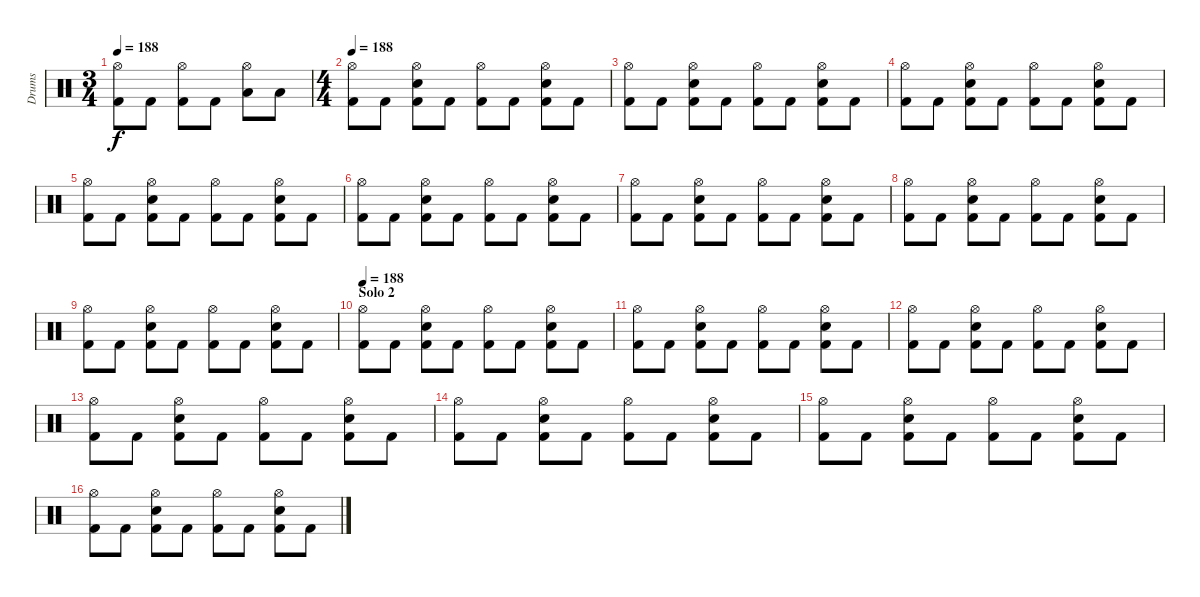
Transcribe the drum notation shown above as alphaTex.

\track ("Drums" "Drums") {instrument percussion}
\staff {score}
\articulation defaults
\ts (3 4)
\tempo 188
\clef neutral
\ks c
("Hi-Hat (open)" "Kick (hit) 2").8{dy f} "Kick (hit) 2".8 ("Hi-Hat (open)" "Kick (hit) 2").8 "Kick (hit) 2".8 ("Hi-Hat (open)" "Low Floor Tom (hit)").8 "Low Floor Tom (hit)".8 |
\ts (4 4)
\tempo 188
("Hi-Hat (open)" "Kick (hit) 2").8 "Kick (hit) 2".8 ("Electric Snare (hit)" "Hi-Hat (open)" "Kick (hit) 2").8 "Kick (hit) 2".8 ("Hi-Hat (open)" "Kick (hit) 2").8 "Kick (hit) 2".8 ("Electric Snare (hit)" "Hi-Hat (open)" "Kick (hit) 2").8 "Kick (hit) 2".8 |
("Hi-Hat (open)" "Kick (hit) 2").8 "Kick (hit) 2".8 ("Electric Snare (hit)" "Hi-Hat (open)" "Kick (hit) 2").8 "Kick (hit) 2".8 ("Hi-Hat (open)" "Kick (hit) 2").8 "Kick (hit) 2".8 ("Electric Snare (hit)" "Hi-Hat (open)" "Kick (hit) 2").8 "Kick (hit) 2".8 |
("Hi-Hat (open)" "Kick (hit) 2").8 "Kick (hit) 2".8 ("Electric Snare (hit)" "Hi-Hat (open)" "Kick (hit) 2").8 "Kick (hit) 2".8 ("Hi-Hat (open)" "Kick (hit) 2").8 "Kick (hit) 2".8 ("Electric Snare (hit)" "Hi-Hat (open)" "Kick (hit) 2").8 "Kick (hit) 2".8 |
("Hi-Hat (open)" "Kick (hit) 2").8 "Kick (hit) 2".8 ("Electric Snare (hit)" "Hi-Hat (open)" "Kick (hit) 2").8 "Kick (hit) 2".8 ("Hi-Hat (open)" "Kick (hit) 2").8 "Kick (hit) 2".8 ("Electric Snare (hit)" "Hi-Hat (open)" "Kick (hit) 2").8 "Kick (hit) 2".8 |
("Hi-Hat (open)" "Kick (hit) 2").8 "Kick (hit) 2".8 ("Electric Snare (hit)" "Hi-Hat (open)" "Kick (hit) 2").8 "Kick (hit) 2".8 ("Hi-Hat (open)" "Kick (hit) 2").8 "Kick (hit) 2".8 ("Electric Snare (hit)" "Hi-Hat (open)" "Kick (hit) 2").8 "Kick (hit) 2".8 |
("Hi-Hat (open)" "Kick (hit) 2").8 "Kick (hit) 2".8 ("Electric Snare (hit)" "Hi-Hat (open)" "Kick (hit) 2").8 "Kick (hit) 2".8 ("Hi-Hat (open)" "Kick (hit) 2").8 "Kick (hit) 2".8 ("Electric Snare (hit)" "Hi-Hat (open)" "Kick (hit) 2").8 "Kick (hit) 2".8 |
("Hi-Hat (open)" "Kick (hit) 2").8 "Kick (hit) 2".8 ("Electric Snare (hit)" "Hi-Hat (open)" "Kick (hit) 2").8 "Kick (hit) 2".8 ("Hi-Hat (open)" "Kick (hit) 2").8 "Kick (hit) 2".8 ("Electric Snare (hit)" "Hi-Hat (open)" "Kick (hit) 2").8 "Kick (hit) 2".8 |
("Hi-Hat (open)" "Kick (hit) 2").8 "Kick (hit) 2".8 ("Electric Snare (hit)" "Hi-Hat (open)" "Kick (hit) 2").8 "Kick (hit) 2".8 ("Hi-Hat (open)" "Kick (hit) 2").8 "Kick (hit) 2".8 ("Electric Snare (hit)" "Hi-Hat (open)" "Kick (hit) 2").8 "Kick (hit) 2".8 |
\section ("" "Solo 2")
\tempo 188
("Hi-Hat (open)" "Kick (hit) 2").8 "Kick (hit) 2".8 ("Electric Snare (hit)" "Hi-Hat (open)" "Kick (hit) 2").8 "Kick (hit) 2".8 ("Hi-Hat (open)" "Kick (hit) 2").8 "Kick (hit) 2".8 ("Electric Snare (hit)" "Hi-Hat (open)" "Kick (hit) 2").8 "Kick (hit) 2".8 |
("Hi-Hat (open)" "Kick (hit) 2").8 "Kick (hit) 2".8 ("Electric Snare (hit)" "Hi-Hat (open)" "Kick (hit) 2").8 "Kick (hit) 2".8 ("Hi-Hat (open)" "Kick (hit) 2").8 "Kick (hit) 2".8 ("Electric Snare (hit)" "Hi-Hat (open)" "Kick (hit) 2").8 "Kick (hit) 2".8 |
("Hi-Hat (open)" "Kick (hit) 2").8 "Kick (hit) 2".8 ("Electric Snare (hit)" "Hi-Hat (open)" "Kick (hit) 2").8 "Kick (hit) 2".8 ("Hi-Hat (open)" "Kick (hit) 2").8 "Kick (hit) 2".8 ("Electric Snare (hit)" "Hi-Hat (open)" "Kick (hit) 2").8 "Kick (hit) 2".8 |
("Hi-Hat (open)" "Kick (hit) 2").8 "Kick (hit) 2".8 ("Electric Snare (hit)" "Hi-Hat (open)" "Kick (hit) 2").8 "Kick (hit) 2".8 ("Hi-Hat (open)" "Kick (hit) 2").8 "Kick (hit) 2".8 ("Electric Snare (hit)" "Hi-Hat (open)" "Kick (hit) 2").8 "Kick (hit) 2".8 |
("Hi-Hat (open)" "Kick (hit) 2").8 "Kick (hit) 2".8 ("Electric Snare (hit)" "Hi-Hat (open)" "Kick (hit) 2").8 "Kick (hit) 2".8 ("Hi-Hat (open)" "Kick (hit) 2").8 "Kick (hit) 2".8 ("Electric Snare (hit)" "Hi-Hat (open)" "Kick (hit) 2").8 "Kick (hit) 2".8 |
("Hi-Hat (open)" "Kick (hit) 2").8 "Kick (hit) 2".8 ("Electric Snare (hit)" "Hi-Hat (open)" "Kick (hit) 2").8 "Kick (hit) 2".8 ("Hi-Hat (open)" "Kick (hit) 2").8 "Kick (hit) 2".8 ("Electric Snare (hit)" "Hi-Hat (open)" "Kick (hit) 2").8 "Kick (hit) 2".8 |
("Hi-Hat (open)" "Kick (hit) 2").8 "Kick (hit) 2".8 ("Electric Snare (hit)" "Hi-Hat (open)" "Kick (hit) 2").8 "Kick (hit) 2".8 ("Hi-Hat (open)" "Kick (hit) 2").8 "Kick (hit) 2".8 ("Electric Snare (hit)" "Hi-Hat (open)" "Kick (hit) 2").8 "Kick (hit) 2".8
